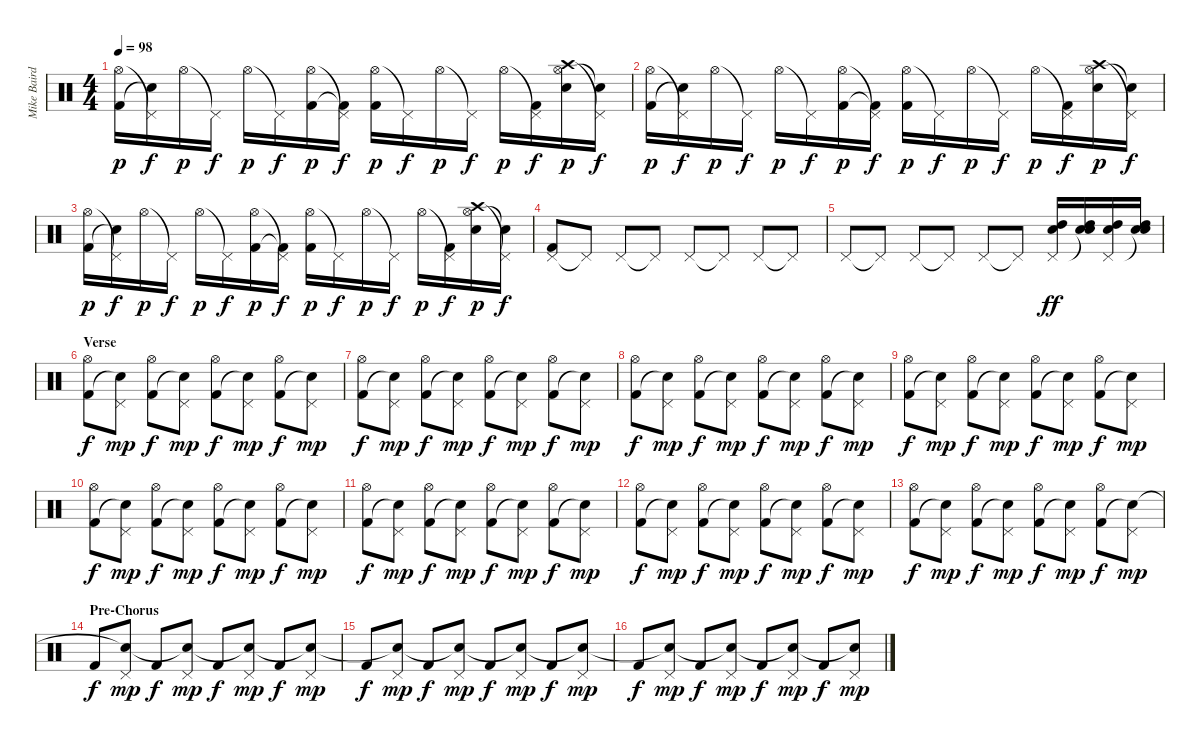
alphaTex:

\track ("Mike Baird [drums]" "Mike Baird") {instrument percussion}
\staff {score}
\articulation defaults
\ts (4 4)
\tempo 98
\clef neutral
\ks c
("Hi-Hat (open)" "Kick (hit) 2").16{dy p} ("Pedal Hi-Hat (hit)"{t} "Snare (hit)"{t}).16{dy f} "Hi-Hat (open)".16{dy p} "Pedal Hi-Hat (hit)"{t}.16{dy f} "Hi-Hat (open)".16{dy p} "Pedal Hi-Hat (hit)"{t}.16{dy f} ("Hi-Hat (open)" "Kick (hit) 2").16{dy p} ("Pedal Hi-Hat (hit)"{t} "Kick (hit) 2"{t}).16{dy f} ("Hi-Hat (open)" "Kick (hit) 2").16{dy p} "Pedal Hi-Hat (hit)"{t}.16{dy f} "Hi-Hat (open)".16{dy p} "Pedal Hi-Hat (hit)"{t}.16{dy f} "Hi-Hat (open)".16{dy p} ("Pedal Hi-Hat (hit)"{t} "Kick (hit) 2").16{dy f} ("Crash high (hit)" "Hi-Hat (open)" "Electric Snare (hit)").16{dy p} ("Pedal Hi-Hat (hit)"{t} "Snare (hit)"{t}).16{dy f} |
("Hi-Hat (open)" "Kick (hit) 2").16{dy p} ("Pedal Hi-Hat (hit)"{t} "Snare (hit)"{t}).16{dy f} "Hi-Hat (open)".16{dy p} "Pedal Hi-Hat (hit)"{t}.16{dy f} "Hi-Hat (open)".16{dy p} "Pedal Hi-Hat (hit)"{t}.16{dy f} ("Hi-Hat (open)" "Kick (hit) 2").16{dy p} ("Pedal Hi-Hat (hit)"{t} "Kick (hit) 2"{t}).16{dy f} ("Hi-Hat (open)" "Kick (hit) 2").16{dy p} "Pedal Hi-Hat (hit)"{t}.16{dy f} "Hi-Hat (open)".16{dy p} "Pedal Hi-Hat (hit)"{t}.16{dy f} "Hi-Hat (open)".16{dy p} ("Pedal Hi-Hat (hit)"{t} "Kick (hit) 2").16{dy f} ("Crash high (hit)" "Hi-Hat (open)" "Electric Snare (hit)").16{dy p} ("Pedal Hi-Hat (hit)"{t} "Snare (hit)"{t}).16{dy f} |
("Hi-Hat (open)" "Kick (hit) 2").16{dy p} ("Pedal Hi-Hat (hit)"{t} "Snare (hit)"{t}).16{dy f} "Hi-Hat (open)".16{dy p} "Pedal Hi-Hat (hit)"{t}.16{dy f} "Hi-Hat (open)".16{dy p} "Pedal Hi-Hat (hit)"{t}.16{dy f} ("Hi-Hat (open)" "Kick (hit) 2").16{dy p} ("Pedal Hi-Hat (hit)"{t} "Kick (hit) 2"{t}).16{dy f} ("Hi-Hat (open)" "Kick (hit) 2").16{dy p} "Pedal Hi-Hat (hit)"{t}.16{dy f} "Hi-Hat (open)".16{dy p} "Pedal Hi-Hat (hit)"{t}.16{dy f} "Hi-Hat (open)".16{dy p} ("Pedal Hi-Hat (hit)"{t} "Kick (hit) 2").16{dy f} ("Crash high (hit)" "Hi-Hat (open)" "Electric Snare (hit)").16{dy p} ("Pedal Hi-Hat (hit)"{t} "Snare (hit)"{t}).16{dy f} |
("Pedal Hi-Hat (hit)" "Kick (hit) 2").8 "Pedal Hi-Hat (hit)"{t}.8 "Pedal Hi-Hat (hit)".8 "Pedal Hi-Hat (hit)"{t}.8 "Pedal Hi-Hat (hit)".8 "Pedal Hi-Hat (hit)"{t}.8 "Pedal Hi-Hat (hit)".8 "Pedal Hi-Hat (hit)"{t}.8 |
"Pedal Hi-Hat (hit)".8 "Pedal Hi-Hat (hit)"{t}.8 "Pedal Hi-Hat (hit)".8 "Pedal Hi-Hat (hit)"{t}.8 "Pedal Hi-Hat (hit)".8 "Pedal Hi-Hat (hit)"{t}.8 ("Electric Snare (hit)" "Pedal Hi-Hat (hit)" "High Tom (hit)").16{dy ff} ("Electric Snare (hit)" "Snare (hit)"{t} "High Tom (hit)").16 ("Electric Snare (hit)" "Pedal Hi-Hat (hit)" "High Tom (hit)").16 ("Electric Snare (hit)" "Snare (hit)"{t} "High Tom (hit)").16 |
\section ("" "Verse")
("Hi-Hat (open)" "Kick (hit) 2").8{dy f} ("Pedal Hi-Hat (hit)" "Snare (hit)"{t}).8{dy mp} ("Hi-Hat (open)" "Kick (hit) 2").8{dy f} ("Pedal Hi-Hat (hit)" "Snare (hit)"{t}).8{dy mp} ("Hi-Hat (open)" "Kick (hit) 2").8{dy f} ("Pedal Hi-Hat (hit)" "Snare (hit)"{t}).8{dy mp} ("Hi-Hat (open)" "Kick (hit) 2").8{dy f} ("Pedal Hi-Hat (hit)" "Snare (hit)"{t}).8{dy mp} |
("Hi-Hat (open)" "Kick (hit) 2").8{dy f} ("Pedal Hi-Hat (hit)" "Snare (hit)"{t}).8{dy mp} ("Hi-Hat (open)" "Kick (hit) 2").8{dy f} ("Pedal Hi-Hat (hit)" "Snare (hit)"{t}).8{dy mp} ("Hi-Hat (open)" "Kick (hit) 2").8{dy f} ("Pedal Hi-Hat (hit)" "Snare (hit)"{t}).8{dy mp} ("Hi-Hat (open)" "Kick (hit) 2").8{dy f} ("Pedal Hi-Hat (hit)" "Snare (hit)"{t}).8{dy mp} |
("Hi-Hat (open)" "Kick (hit) 2").8{dy f} ("Pedal Hi-Hat (hit)" "Snare (hit)"{t}).8{dy mp} ("Hi-Hat (open)" "Kick (hit) 2").8{dy f} ("Pedal Hi-Hat (hit)" "Snare (hit)"{t}).8{dy mp} ("Hi-Hat (open)" "Kick (hit) 2").8{dy f} ("Pedal Hi-Hat (hit)" "Snare (hit)"{t}).8{dy mp} ("Hi-Hat (open)" "Kick (hit) 2").8{dy f} ("Pedal Hi-Hat (hit)" "Snare (hit)"{t}).8{dy mp} |
("Hi-Hat (open)" "Kick (hit) 2").8{dy f} ("Pedal Hi-Hat (hit)" "Snare (hit)"{t}).8{dy mp} ("Hi-Hat (open)" "Kick (hit) 2").8{dy f} ("Pedal Hi-Hat (hit)" "Snare (hit)"{t}).8{dy mp} ("Hi-Hat (open)" "Kick (hit) 2").8{dy f} ("Pedal Hi-Hat (hit)" "Snare (hit)"{t}).8{dy mp} ("Hi-Hat (open)" "Kick (hit) 2").8{dy f} ("Pedal Hi-Hat (hit)" "Snare (hit)"{t}).8{dy mp} |
("Hi-Hat (open)" "Kick (hit) 2").8{dy f} ("Pedal Hi-Hat (hit)" "Snare (hit)"{t}).8{dy mp} ("Hi-Hat (open)" "Kick (hit) 2").8{dy f} ("Pedal Hi-Hat (hit)" "Snare (hit)"{t}).8{dy mp} ("Hi-Hat (open)" "Kick (hit) 2").8{dy f} ("Pedal Hi-Hat (hit)" "Snare (hit)"{t}).8{dy mp} ("Hi-Hat (open)" "Kick (hit) 2").8{dy f} ("Pedal Hi-Hat (hit)" "Snare (hit)"{t}).8{dy mp} |
("Hi-Hat (open)" "Kick (hit) 2").8{dy f} ("Pedal Hi-Hat (hit)" "Snare (hit)"{t}).8{dy mp} ("Hi-Hat (open)" "Kick (hit) 2").8{dy f} ("Pedal Hi-Hat (hit)" "Snare (hit)"{t}).8{dy mp} ("Hi-Hat (open)" "Kick (hit) 2").8{dy f} ("Pedal Hi-Hat (hit)" "Snare (hit)"{t}).8{dy mp} ("Hi-Hat (open)" "Kick (hit) 2").8{dy f} ("Pedal Hi-Hat (hit)" "Snare (hit)"{t}).8{dy mp} |
("Hi-Hat (open)" "Kick (hit) 2").8{dy f} ("Pedal Hi-Hat (hit)" "Snare (hit)"{t}).8{dy mp} ("Hi-Hat (open)" "Kick (hit) 2").8{dy f} ("Pedal Hi-Hat (hit)" "Snare (hit)"{t}).8{dy mp} ("Hi-Hat (open)" "Kick (hit) 2").8{dy f} ("Pedal Hi-Hat (hit)" "Snare (hit)"{t}).8{dy mp} ("Hi-Hat (open)" "Kick (hit) 2").8{dy f} ("Pedal Hi-Hat (hit)" "Snare (hit)"{t}).8{dy mp} |
("Hi-Hat (open)" "Kick (hit) 2").8{dy f} ("Pedal Hi-Hat (hit)" "Snare (hit)"{t}).8{dy mp} ("Hi-Hat (open)" "Kick (hit) 2").8{dy f} ("Pedal Hi-Hat (hit)" "Snare (hit)"{t}).8{dy mp} ("Hi-Hat (open)" "Kick (hit) 2").8{dy f} ("Pedal Hi-Hat (hit)" "Snare (hit)"{t}).8{dy mp} ("Hi-Hat (open)" "Kick (hit) 2").8{dy f} ("Pedal Hi-Hat (hit)" "Snare (hit)"{t}).8{dy mp} |
\section ("" "Pre-Chorus")
"Kick (hit) 2".8{dy f} ("Pedal Hi-Hat (hit)" "Snare (hit)"{t}).8{dy mp} "Kick (hit) 2".8{dy f} ("Pedal Hi-Hat (hit)" "Snare (hit)"{t}).8{dy mp} "Kick (hit) 2".8{dy f} ("Pedal Hi-Hat (hit)" "Snare (hit)"{t}).8{dy mp} "Kick (hit) 2".8{dy f} ("Pedal Hi-Hat (hit)" "Snare (hit)"{t}).8{dy mp} |
"Kick (hit) 2".8{dy f} ("Pedal Hi-Hat (hit)" "Snare (hit)"{t}).8{dy mp} "Kick (hit) 2".8{dy f} ("Pedal Hi-Hat (hit)" "Snare (hit)"{t}).8{dy mp} "Kick (hit) 2".8{dy f} ("Pedal Hi-Hat (hit)" "Snare (hit)"{t}).8{dy mp} "Kick (hit) 2".8{dy f} ("Pedal Hi-Hat (hit)" "Snare (hit)"{t}).8{dy mp} |
"Kick (hit) 2".8{dy f} ("Pedal Hi-Hat (hit)" "Snare (hit)"{t}).8{dy mp} "Kick (hit) 2".8{dy f} ("Pedal Hi-Hat (hit)" "Snare (hit)"{t}).8{dy mp} "Kick (hit) 2".8{dy f} ("Pedal Hi-Hat (hit)" "Snare (hit)"{t}).8{dy mp} "Kick (hit) 2".8{dy f} ("Pedal Hi-Hat (hit)" "Snare (hit)"{t}).8{dy mp}
